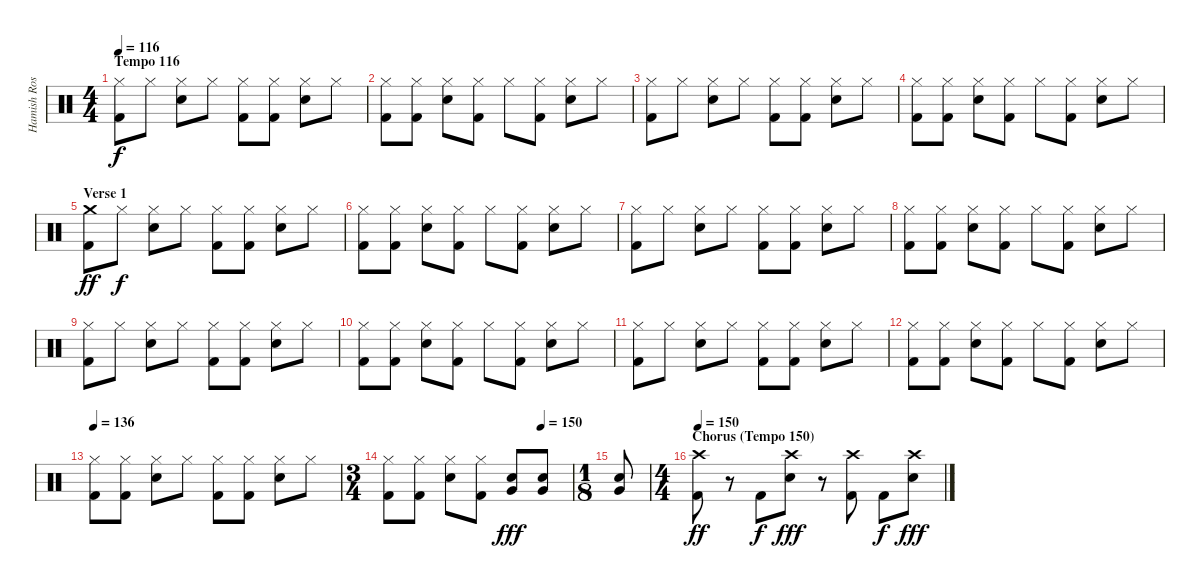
\track ("Hamish Rosser" "Hamish Ros") {instrument percussion}
\staff {score}
\articulation defaults
\ts (4 4)
\section ("" "Tempo 116")
\tempo 116
\clef neutral
\ks c
("Hi-Hat (closed)" "Kick (hit) 2").8{dy f} "Hi-Hat (closed)".8 ("Hi-Hat (closed)" "Electric Snare (hit)").8 "Hi-Hat (closed)".8 ("Hi-Hat (closed)" "Kick (hit) 2").8 ("Hi-Hat (closed)" "Kick (hit) 2").8 ("Hi-Hat (closed)" "Electric Snare (hit)").8 "Hi-Hat (closed)".8 |
("Hi-Hat (closed)" "Kick (hit) 2").8 ("Hi-Hat (closed)" "Kick (hit) 2").8 ("Hi-Hat (closed)" "Electric Snare (hit)").8 ("Hi-Hat (closed)" "Kick (hit) 2").8 "Hi-Hat (closed)".8 ("Hi-Hat (closed)" "Kick (hit) 2").8 ("Hi-Hat (closed)" "Electric Snare (hit)").8 "Hi-Hat (closed)".8 |
("Hi-Hat (closed)" "Kick (hit) 2").8 "Hi-Hat (closed)".8 ("Hi-Hat (closed)" "Electric Snare (hit)").8 "Hi-Hat (closed)".8 ("Hi-Hat (closed)" "Kick (hit) 2").8 ("Hi-Hat (closed)" "Kick (hit) 2").8 ("Hi-Hat (closed)" "Electric Snare (hit)").8 "Hi-Hat (closed)".8 |
("Hi-Hat (closed)" "Kick (hit) 2").8 ("Hi-Hat (closed)" "Kick (hit) 2").8 ("Hi-Hat (closed)" "Electric Snare (hit)").8 ("Hi-Hat (closed)" "Kick (hit) 2").8 "Hi-Hat (closed)".8 ("Hi-Hat (closed)" "Kick (hit) 2").8 ("Hi-Hat (closed)" "Electric Snare (hit)").8 "Hi-Hat (closed)".8 |
\section ("" "Verse 1")
("Crash medium (hit)" "Kick (hit) 2").8{dy ff} "Hi-Hat (closed)".8{dy f} ("Hi-Hat (closed)" "Electric Snare (hit)").8 "Hi-Hat (closed)".8 ("Hi-Hat (closed)" "Kick (hit) 2").8 ("Hi-Hat (closed)" "Kick (hit) 2").8 ("Hi-Hat (closed)" "Electric Snare (hit)").8 "Hi-Hat (closed)".8 |
("Hi-Hat (closed)" "Kick (hit) 2").8 ("Hi-Hat (closed)" "Kick (hit) 2").8 ("Hi-Hat (closed)" "Electric Snare (hit)").8 ("Hi-Hat (closed)" "Kick (hit) 2").8 "Hi-Hat (closed)".8 ("Hi-Hat (closed)" "Kick (hit) 2").8 ("Hi-Hat (closed)" "Electric Snare (hit)").8 "Hi-Hat (closed)".8 |
("Hi-Hat (closed)" "Kick (hit) 2").8 "Hi-Hat (closed)".8 ("Hi-Hat (closed)" "Electric Snare (hit)").8 "Hi-Hat (closed)".8 ("Hi-Hat (closed)" "Kick (hit) 2").8 ("Hi-Hat (closed)" "Kick (hit) 2").8 ("Hi-Hat (closed)" "Electric Snare (hit)").8 "Hi-Hat (closed)".8 |
("Hi-Hat (closed)" "Kick (hit) 2").8 ("Hi-Hat (closed)" "Kick (hit) 2").8 ("Hi-Hat (closed)" "Electric Snare (hit)").8 ("Hi-Hat (closed)" "Kick (hit) 2").8 "Hi-Hat (closed)".8 ("Hi-Hat (closed)" "Kick (hit) 2").8 ("Hi-Hat (closed)" "Electric Snare (hit)").8 "Hi-Hat (closed)".8 |
("Hi-Hat (closed)" "Kick (hit) 2").8 "Hi-Hat (closed)".8 ("Hi-Hat (closed)" "Electric Snare (hit)").8 "Hi-Hat (closed)".8 ("Hi-Hat (closed)" "Kick (hit) 2").8 ("Hi-Hat (closed)" "Kick (hit) 2").8 ("Hi-Hat (closed)" "Electric Snare (hit)").8 "Hi-Hat (closed)".8 |
("Hi-Hat (closed)" "Kick (hit) 2").8 ("Hi-Hat (closed)" "Kick (hit) 2").8 ("Hi-Hat (closed)" "Electric Snare (hit)").8 ("Hi-Hat (closed)" "Kick (hit) 2").8 "Hi-Hat (closed)".8 ("Hi-Hat (closed)" "Kick (hit) 2").8 ("Hi-Hat (closed)" "Electric Snare (hit)").8 "Hi-Hat (closed)".8 |
("Hi-Hat (closed)" "Kick (hit) 2").8 "Hi-Hat (closed)".8 ("Hi-Hat (closed)" "Electric Snare (hit)").8 "Hi-Hat (closed)".8 ("Hi-Hat (closed)" "Kick (hit) 2").8 ("Hi-Hat (closed)" "Kick (hit) 2").8 ("Hi-Hat (closed)" "Electric Snare (hit)").8 "Hi-Hat (closed)".8 |
("Hi-Hat (closed)" "Kick (hit) 2").8 ("Hi-Hat (closed)" "Kick (hit) 2").8 ("Hi-Hat (closed)" "Electric Snare (hit)").8 ("Hi-Hat (closed)" "Kick (hit) 2").8 "Hi-Hat (closed)".8 ("Hi-Hat (closed)" "Kick (hit) 2").8 ("Hi-Hat (closed)" "Electric Snare (hit)").8 "Hi-Hat (closed)".8 |
\tempo 136
("Hi-Hat (closed)" "Kick (hit) 2").8 ("Hi-Hat (closed)" "Kick (hit) 2").8 ("Hi-Hat (closed)" "Electric Snare (hit)").8 "Hi-Hat (closed)".8 ("Hi-Hat (closed)" "Kick (hit) 2").8 ("Hi-Hat (closed)" "Kick (hit) 2").8 ("Hi-Hat (closed)" "Electric Snare (hit)").8 "Hi-Hat (closed)".8 |
\ts (3 4)
\tempo (150 0.8333333333333334)
("Hi-Hat (closed)" "Kick (hit) 2").8 ("Hi-Hat (closed)" "Kick (hit) 2").8 ("Hi-Hat (closed)" "Electric Snare (hit)").8 ("Hi-Hat (closed)" "Kick (hit) 2").8 ("Electric Snare (hit)" "Very Low Tom (hit)").8{dy fff} ("Electric Snare (hit)" "Very Low Tom (hit)").8 |
\ts (1 8)
("Electric Snare (hit)" "Very Low Tom (hit)").8 |
\ts (4 4)
\section ("" "Chorus (Tempo 150)")
\tempo 150
("Crash high (hit)" "Kick (hit) 2").8{dy ff} r.8 "Kick (hit) 2".8{dy f} ("Crash high (hit)" "Electric Snare (hit)").8{dy fff} r.8 ("Crash high (hit)" "Kick (hit) 2").8 "Kick (hit) 2".8{dy f} ("Crash high (hit)" "Electric Snare (hit)").8{dy fff}
